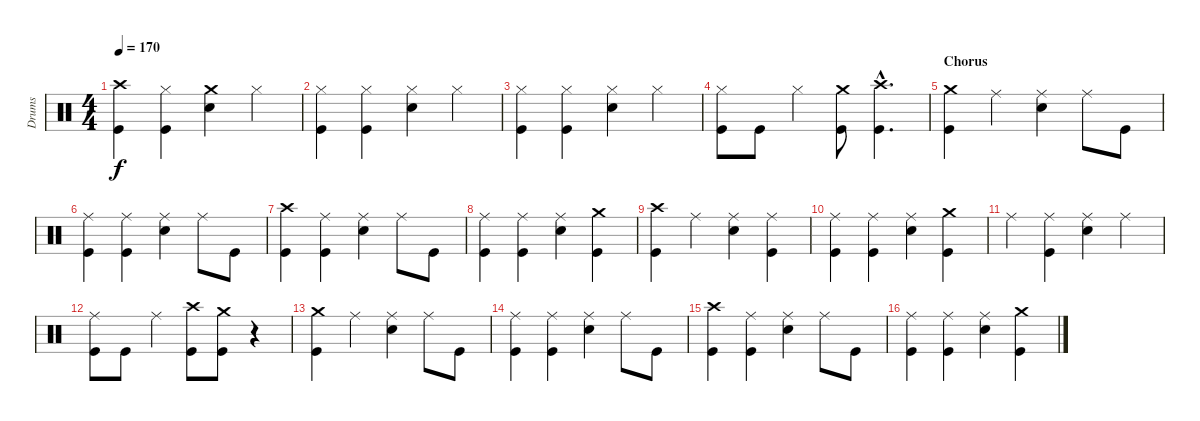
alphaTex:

\track ("Drums" "Drums") {instrument percussion}
\staff {score}
\articulation defaults
\ts (4 4)
\tempo 170
\clef neutral
\ks c
("Crash high (hit)" "Kick (hit)").4{dy f} ("Hi-Hat (closed)" "Kick (hit)").4 ("Crash medium (hit)" "Snare (hit) 2").4 "Hi-Hat (closed)".4 |
("Hi-Hat (closed)" "Kick (hit)").4 ("Hi-Hat (closed)" "Kick (hit)").4 ("Hi-Hat (closed)" "Snare (hit) 2").4 "Hi-Hat (closed)".4 |
("Hi-Hat (closed)" "Kick (hit)").4 ("Hi-Hat (closed)" "Kick (hit)").4 ("Hi-Hat (closed)" "Snare (hit) 2").4 "Hi-Hat (closed)".4 |
("Hi-Hat (closed)" "Kick (hit)").8 "Kick (hit)".8 "Hi-Hat (closed)".4 ("Crash medium (hit)" "Kick (hit)").8 ("Crash high (hit)"{hac} "Kick (hit)"{hac}).4{d} |
\section ("" "Chorus")
("Crash medium (hit)" "Kick (hit)").4 "Ride (middle)".4 ("Ride (middle)" "Snare (hit) 2").4 "Ride (middle)".8 "Kick (hit)".8 |
("Ride (middle)" "Kick (hit)").4 ("Ride (middle)" "Kick (hit)").4 ("Ride (middle)" "Snare (hit) 2").4 "Ride (middle)".8 "Kick (hit)".8 |
("Crash high (hit)" "Kick (hit)").4 ("Ride (middle)" "Kick (hit)").4 ("Ride (middle)" "Snare (hit) 2").4 "Ride (middle)".8 "Kick (hit)".8 |
("Ride (middle)" "Kick (hit)").4 ("Ride (middle)" "Kick (hit)").4 ("Ride (middle)" "Snare (hit) 2").4 ("Crash medium (hit)" "Kick (hit)").4 |
("Crash high (hit)" "Kick (hit)").4 "Ride (middle)".4 ("Ride (middle)" "Snare (hit) 2").4 ("Ride (middle)" "Kick (hit)").4 |
("Ride (middle)" "Kick (hit)").4 ("Ride (middle)" "Kick (hit)").4 ("Ride (middle)" "Snare (hit) 2").4 ("Crash medium (hit)" "Kick (hit)").4 |
"Ride (middle)".4 ("Ride (middle)" "Kick (hit)").4 ("Ride (middle)" "Snare (hit) 2").4 "Ride (middle)".4 |
("Ride (middle)" "Kick (hit)").8 "Kick (hit)".8 "Ride (middle)".4 ("Crash high (hit)" "Kick (hit)").8 ("Crash medium (hit)" "Kick (hit)").8 r.4 |
("Crash medium (hit)" "Kick (hit)").4 "Ride (middle)".4 ("Ride (middle)" "Snare (hit) 2").4 "Ride (middle)".8 "Kick (hit)".8 |
("Ride (middle)" "Kick (hit)").4 ("Ride (middle)" "Kick (hit)").4 ("Ride (middle)" "Snare (hit) 2").4 "Ride (middle)".8 "Kick (hit)".8 |
("Crash high (hit)" "Kick (hit)").4 ("Ride (middle)" "Kick (hit)").4 ("Ride (middle)" "Snare (hit) 2").4 "Ride (middle)".8 "Kick (hit)".8 |
("Ride (middle)" "Kick (hit)").4 ("Ride (middle)" "Kick (hit)").4 ("Ride (middle)" "Snare (hit) 2").4 ("Crash medium (hit)" "Kick (hit)").4
